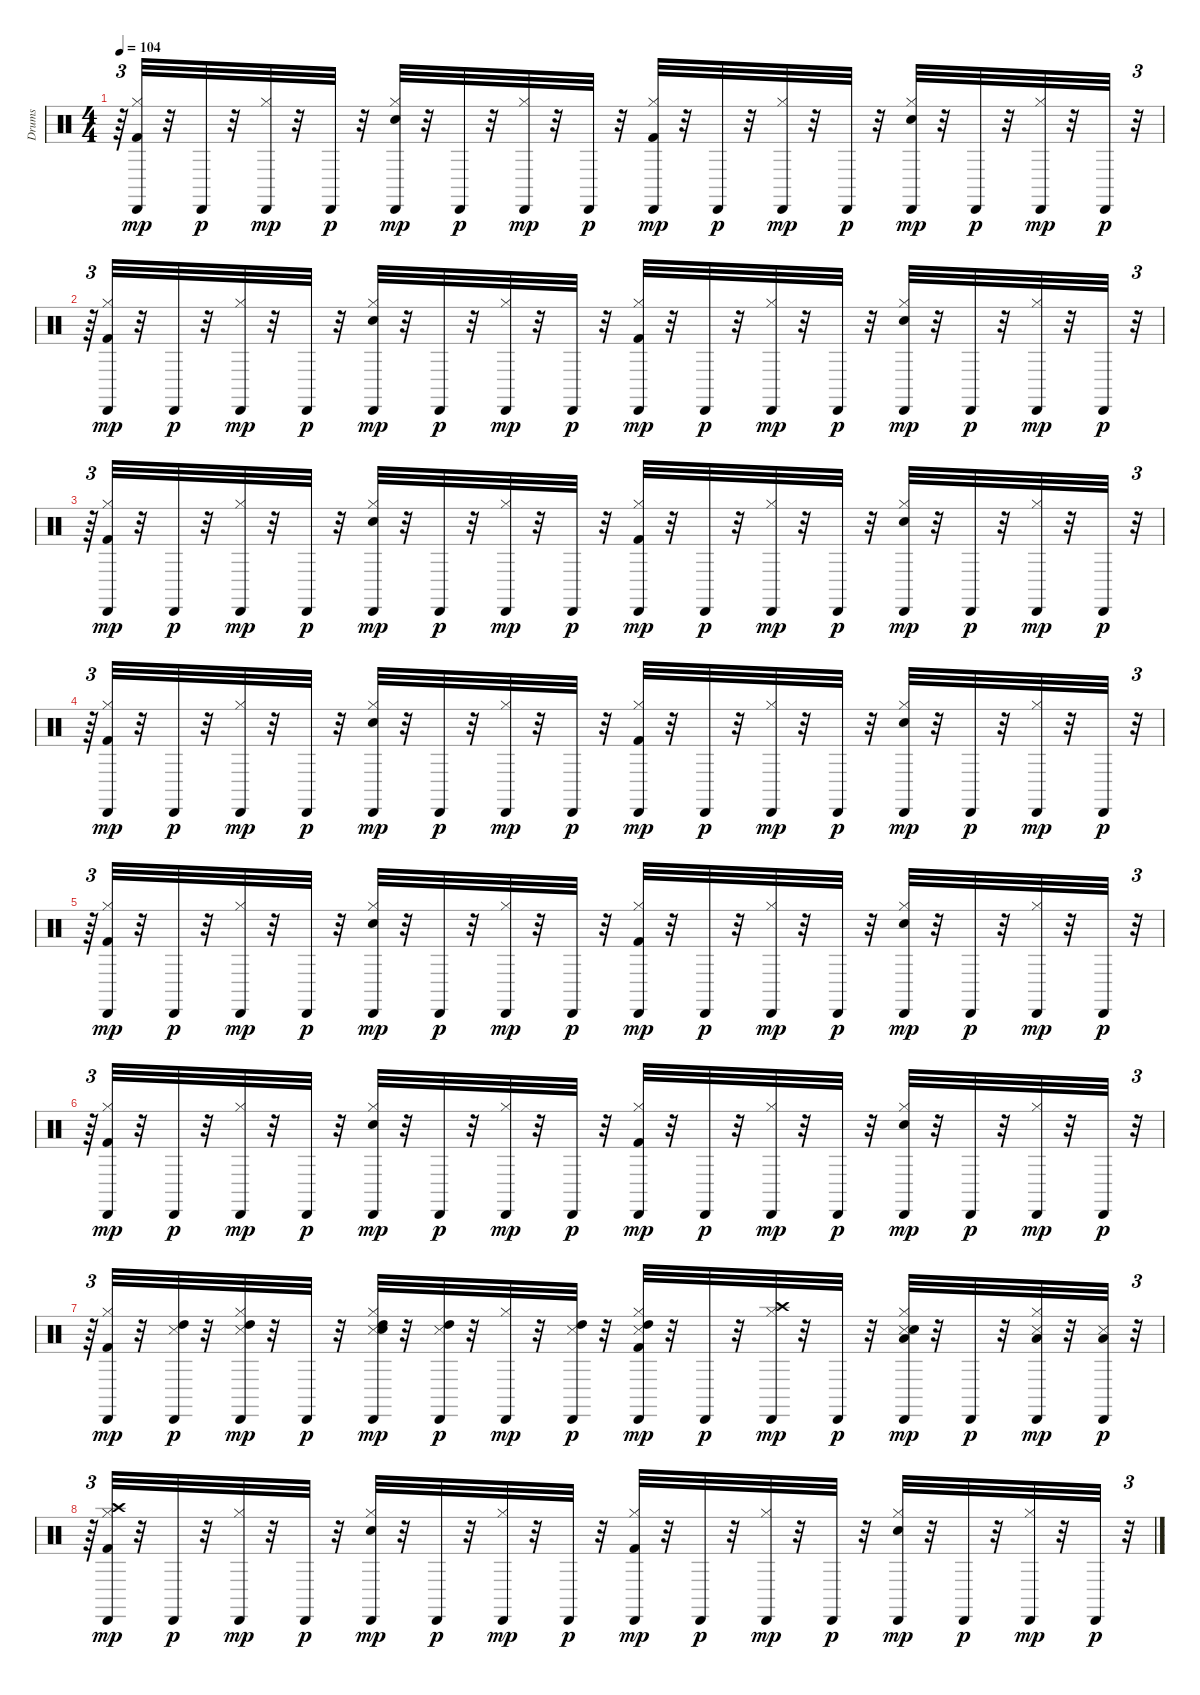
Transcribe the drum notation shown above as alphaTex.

\track ("Drums               " "Drums     ") {instrument percussion}
\staff {score}
\articulation defaults
\ts (4 4)
\tempo 104
\clef neutral
\ks c
r.64{tu (3 2) dy p} ("Kick (hit) 2" "Hi-Hat (closed)" "Cabasa (hit)").32{dy mp} r.32 "Cabasa (hit)".32{dy p} r.32 ("Hi-Hat (closed)" "Cabasa (hit)").32{dy mp} r.32 "Cabasa (hit)".32{dy p} r.32 ("Snare (hit) 2" "Hi-Hat (closed)" "Cabasa (hit)").32{dy mp} r.32 "Cabasa (hit)".32{dy p} r.32 ("Hi-Hat (closed)" "Cabasa (hit)").32{dy mp} r.32 "Cabasa (hit)".32{dy p} r.32 ("Kick (hit) 2" "Hi-Hat (closed)" "Cabasa (hit)").32{dy mp} r.32 "Cabasa (hit)".32{dy p} r.32 ("Hi-Hat (closed)" "Cabasa (hit)").32{dy mp} r.32 "Cabasa (hit)".32{dy p} r.32 ("Snare (hit) 2" "Hi-Hat (closed)" "Cabasa (hit)").32{dy mp} r.32 "Cabasa (hit)".32{dy p} r.32 ("Hi-Hat (closed)" "Cabasa (hit)").32{dy mp} r.32 "Cabasa (hit)".32{dy p} r.32{tu (3 2)} |
r.64{tu (3 2)} ("Kick (hit) 2" "Hi-Hat (closed)" "Cabasa (hit)").32{dy mp} r.32 "Cabasa (hit)".32{dy p} r.32 ("Hi-Hat (closed)" "Cabasa (hit)").32{dy mp} r.32 "Cabasa (hit)".32{dy p} r.32 ("Snare (hit) 2" "Hi-Hat (closed)" "Cabasa (hit)").32{dy mp} r.32 "Cabasa (hit)".32{dy p} r.32 ("Hi-Hat (closed)" "Cabasa (hit)").32{dy mp} r.32 "Cabasa (hit)".32{dy p} r.32 ("Kick (hit) 2" "Hi-Hat (closed)" "Cabasa (hit)").32{dy mp} r.32 "Cabasa (hit)".32{dy p} r.32 ("Hi-Hat (closed)" "Cabasa (hit)").32{dy mp} r.32 "Cabasa (hit)".32{dy p} r.32 ("Snare (hit) 2" "Hi-Hat (closed)" "Cabasa (hit)").32{dy mp} r.32 "Cabasa (hit)".32{dy p} r.32 ("Hi-Hat (closed)" "Cabasa (hit)").32{dy mp} r.32 "Cabasa (hit)".32{dy p} r.32{tu (3 2)} |
r.64{tu (3 2)} ("Kick (hit) 2" "Hi-Hat (closed)" "Cabasa (hit)").32{dy mp} r.32 "Cabasa (hit)".32{dy p} r.32 ("Hi-Hat (closed)" "Cabasa (hit)").32{dy mp} r.32 "Cabasa (hit)".32{dy p} r.32 ("Snare (hit) 2" "Hi-Hat (closed)" "Cabasa (hit)").32{dy mp} r.32 "Cabasa (hit)".32{dy p} r.32 ("Hi-Hat (closed)" "Cabasa (hit)").32{dy mp} r.32 "Cabasa (hit)".32{dy p} r.32 ("Kick (hit) 2" "Hi-Hat (closed)" "Cabasa (hit)").32{dy mp} r.32 "Cabasa (hit)".32{dy p} r.32 ("Hi-Hat (closed)" "Cabasa (hit)").32{dy mp} r.32 "Cabasa (hit)".32{dy p} r.32 ("Snare (hit) 2" "Hi-Hat (closed)" "Cabasa (hit)").32{dy mp} r.32 "Cabasa (hit)".32{dy p} r.32 ("Hi-Hat (closed)" "Cabasa (hit)").32{dy mp} r.32 "Cabasa (hit)".32{dy p} r.32{tu (3 2)} |
r.64{tu (3 2)} ("Kick (hit) 2" "Hi-Hat (closed)" "Cabasa (hit)").32{dy mp} r.32 "Cabasa (hit)".32{dy p} r.32 ("Hi-Hat (closed)" "Cabasa (hit)").32{dy mp} r.32 "Cabasa (hit)".32{dy p} r.32 ("Snare (hit) 2" "Hi-Hat (closed)" "Cabasa (hit)").32{dy mp} r.32 "Cabasa (hit)".32{dy p} r.32 ("Hi-Hat (closed)" "Cabasa (hit)").32{dy mp} r.32 "Cabasa (hit)".32{dy p} r.32 ("Kick (hit) 2" "Hi-Hat (closed)" "Cabasa (hit)").32{dy mp} r.32 "Cabasa (hit)".32{dy p} r.32 ("Hi-Hat (closed)" "Cabasa (hit)").32{dy mp} r.32 "Cabasa (hit)".32{dy p} r.32 ("Snare (hit) 2" "Hi-Hat (closed)" "Cabasa (hit)").32{dy mp} r.32 "Cabasa (hit)".32{dy p} r.32 ("Hi-Hat (closed)" "Cabasa (hit)").32{dy mp} r.32 "Cabasa (hit)".32{dy p} r.32{tu (3 2)} |
r.64{tu (3 2)} ("Kick (hit) 2" "Hi-Hat (closed)" "Cabasa (hit)").32{dy mp} r.32 "Cabasa (hit)".32{dy p} r.32 ("Hi-Hat (closed)" "Cabasa (hit)").32{dy mp} r.32 "Cabasa (hit)".32{dy p} r.32 ("Snare (hit) 2" "Hi-Hat (closed)" "Cabasa (hit)").32{dy mp} r.32 "Cabasa (hit)".32{dy p} r.32 ("Hi-Hat (closed)" "Cabasa (hit)").32{dy mp} r.32 "Cabasa (hit)".32{dy p} r.32 ("Kick (hit) 2" "Hi-Hat (closed)" "Cabasa (hit)").32{dy mp} r.32 "Cabasa (hit)".32{dy p} r.32 ("Hi-Hat (closed)" "Cabasa (hit)").32{dy mp} r.32 "Cabasa (hit)".32{dy p} r.32 ("Snare (hit) 2" "Hi-Hat (closed)" "Cabasa (hit)").32{dy mp} r.32 "Cabasa (hit)".32{dy p} r.32 ("Hi-Hat (closed)" "Cabasa (hit)").32{dy mp} r.32 "Cabasa (hit)".32{dy p} r.32{tu (3 2)} |
r.64{tu (3 2)} ("Kick (hit) 2" "Hi-Hat (closed)" "Cabasa (hit)").32{dy mp} r.32 "Cabasa (hit)".32{dy p} r.32 ("Hi-Hat (closed)" "Cabasa (hit)").32{dy mp} r.32 "Cabasa (hit)".32{dy p} r.32 ("Snare (hit) 2" "Hi-Hat (closed)" "Cabasa (hit)").32{dy mp} r.32 "Cabasa (hit)".32{dy p} r.32 ("Hi-Hat (closed)" "Cabasa (hit)").32{dy mp} r.32 "Cabasa (hit)".32{dy p} r.32 ("Kick (hit) 2" "Hi-Hat (closed)" "Cabasa (hit)").32{dy mp} r.32 "Cabasa (hit)".32{dy p} r.32 ("Hi-Hat (closed)" "Cabasa (hit)").32{dy mp} r.32 "Cabasa (hit)".32{dy p} r.32 ("Snare (hit) 2" "Hi-Hat (closed)" "Cabasa (hit)").32{dy mp} r.32 "Cabasa (hit)".32{dy p} r.32 ("Hi-Hat (closed)" "Cabasa (hit)").32{dy mp} r.32 "Cabasa (hit)".32{dy p} r.32{tu (3 2)} |
r.64{tu (3 2)} ("Kick (hit) 2" "Hi-Hat (closed)" "Cabasa (hit)").32{dy mp} r.32 ("Snare (side stick) 3" "High Tom (hit)" "Cabasa (hit)").32{dy p} r.32 ("Snare (side stick) 3" "Hi-Hat (closed)" "High Tom (hit)" "Cabasa (hit)").32{dy mp} r.32 "Cabasa (hit)".32{dy p} r.32 ("Snare (side stick) 3" "Snare (hit) 2" "Hi-Hat (closed)" "High Tom (hit)" "Cabasa (hit)").32{dy mp} r.32 ("Snare (side stick) 3" "High Tom (hit)" "Cabasa (hit)").32{dy p} r.32 ("Hi-Hat (closed)" "Cabasa (hit)").32{dy mp} r.32 ("Snare (side stick) 3" "High Tom (hit)" "Cabasa (hit)").32{dy p} r.32 ("Kick (hit) 2" "Snare (side stick) 3" "Hi-Hat (closed)" "High Tom (hit)" "Cabasa (hit)").32{dy mp} r.32 "Cabasa (hit)".32{dy p} r.32 ("Hi-Hat (closed)" "Crash high (hit)" "Cabasa (hit)").32{dy mp} r.32 "Cabasa (hit)".32{dy p} r.32 ("Snare (side stick) 3" "Snare (hit) 2" "Hi-Hat (closed)" "Low Tom (hit)" "Cabasa (hit)").32{dy mp} r.32 "Cabasa (hit)".32{dy p} r.32 ("Snare (side stick) 3" "Hi-Hat (closed)" "Low Tom (hit)" "Cabasa (hit)").32{dy mp} r.32 ("Snare (side stick) 3" "Low Tom (hit)" "Cabasa (hit)").32{dy p} r.32{tu (3 2)} |
r.64{tu (3 2)} ("Kick (hit) 2" "Hi-Hat (closed)" "Crash high (hit)" "Cabasa (hit)").32{dy mp} r.32 "Cabasa (hit)".32{dy p} r.32 ("Hi-Hat (closed)" "Cabasa (hit)").32{dy mp} r.32 "Cabasa (hit)".32{dy p} r.32 ("Snare (hit) 2" "Hi-Hat (closed)" "Cabasa (hit)").32{dy mp} r.32 "Cabasa (hit)".32{dy p} r.32 ("Hi-Hat (closed)" "Cabasa (hit)").32{dy mp} r.32 "Cabasa (hit)".32{dy p} r.32 ("Kick (hit) 2" "Hi-Hat (closed)" "Cabasa (hit)").32{dy mp} r.32 "Cabasa (hit)".32{dy p} r.32 ("Hi-Hat (closed)" "Cabasa (hit)").32{dy mp} r.32 "Cabasa (hit)".32{dy p} r.32 ("Snare (hit) 2" "Hi-Hat (closed)" "Cabasa (hit)").32{dy mp} r.32 "Cabasa (hit)".32{dy p} r.32 ("Hi-Hat (closed)" "Cabasa (hit)").32{dy mp} r.32 "Cabasa (hit)".32{dy p} r.32{tu (3 2)}
